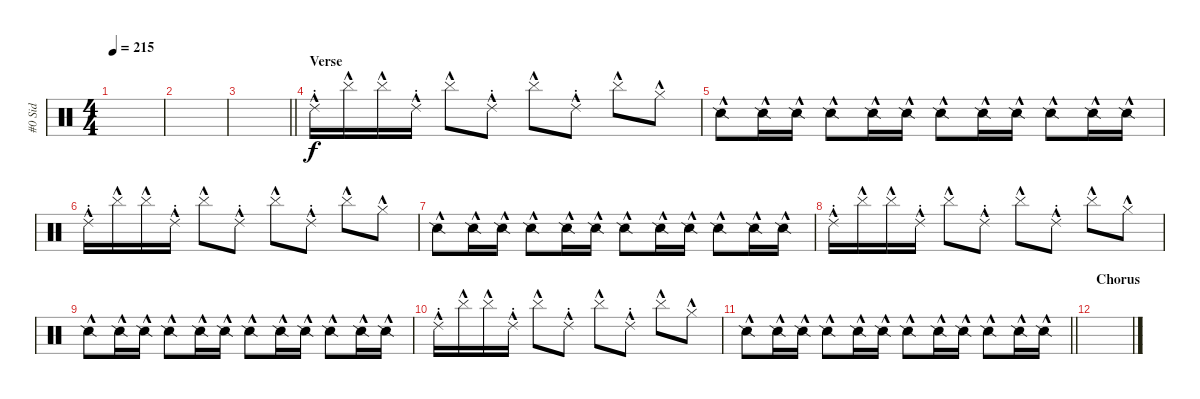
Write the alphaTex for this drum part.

\track ("#0 Sid" "#0 Sid") {instrument percussion}
\staff {score}
\articulation defaults
\ts (4 4)
\tempo 215
\clef neutral
\ks c
|
|
\barLineRight lightlight
|
\section ("" "Verse")
"Ride (choke) 2"{hac}.16 "Cymbal (hit)"{hac}.16 "Cymbal (hit)"{hac}.16 "Ride (choke) 2"{hac}.16 "Cymbal (hit)"{hac}.8 "Ride (choke) 2"{hac}.8 "Cymbal (hit)"{hac}.8 "Ride (choke) 2"{hac}.8 "Cymbal (hit)"{hac}.8 "Hi-Hat (closed)"{hac}.8 |
"Snare (side stick) 2"{hac}.8 "Snare (side stick) 2"{hac}.16 "Snare (side stick) 2"{hac}.16 "Snare (side stick) 2"{hac}.8 "Snare (side stick) 2"{hac}.16 "Snare (side stick) 2"{hac}.16 "Snare (side stick) 2"{hac}.8 "Snare (side stick) 2"{hac}.16 "Snare (side stick) 2"{hac}.16 "Snare (side stick) 2"{hac}.8 "Snare (side stick) 2"{hac}.16 "Snare (side stick) 2"{hac}.16 |
"Ride (choke) 2"{hac}.16 "Cymbal (hit)"{hac}.16 "Cymbal (hit)"{hac}.16 "Ride (choke) 2"{hac}.16 "Cymbal (hit)"{hac}.8 "Ride (choke) 2"{hac}.8 "Cymbal (hit)"{hac}.8 "Ride (choke) 2"{hac}.8 "Cymbal (hit)"{hac}.8 "Hi-Hat (closed)"{hac}.8 |
"Snare (side stick) 2"{hac}.8 "Snare (side stick) 2"{hac}.16 "Snare (side stick) 2"{hac}.16 "Snare (side stick) 2"{hac}.8 "Snare (side stick) 2"{hac}.16 "Snare (side stick) 2"{hac}.16 "Snare (side stick) 2"{hac}.8 "Snare (side stick) 2"{hac}.16 "Snare (side stick) 2"{hac}.16 "Snare (side stick) 2"{hac}.8 "Snare (side stick) 2"{hac}.16 "Snare (side stick) 2"{hac}.16 |
"Ride (choke) 2"{hac}.16 "Cymbal (hit)"{hac}.16 "Cymbal (hit)"{hac}.16 "Ride (choke) 2"{hac}.16 "Cymbal (hit)"{hac}.8 "Ride (choke) 2"{hac}.8 "Cymbal (hit)"{hac}.8 "Ride (choke) 2"{hac}.8 "Cymbal (hit)"{hac}.8 "Hi-Hat (closed)"{hac}.8 |
"Snare (side stick) 2"{hac}.8 "Snare (side stick) 2"{hac}.16 "Snare (side stick) 2"{hac}.16 "Snare (side stick) 2"{hac}.8 "Snare (side stick) 2"{hac}.16 "Snare (side stick) 2"{hac}.16 "Snare (side stick) 2"{hac}.8 "Snare (side stick) 2"{hac}.16 "Snare (side stick) 2"{hac}.16 "Snare (side stick) 2"{hac}.8 "Snare (side stick) 2"{hac}.16 "Snare (side stick) 2"{hac}.16 |
"Ride (choke) 2"{hac}.16 "Cymbal (hit)"{hac}.16 "Cymbal (hit)"{hac}.16 "Ride (choke) 2"{hac}.16 "Cymbal (hit)"{hac}.8 "Ride (choke) 2"{hac}.8 "Cymbal (hit)"{hac}.8 "Ride (choke) 2"{hac}.8 "Cymbal (hit)"{hac}.8 "Hi-Hat (closed)"{hac}.8 |
\barLineRight lightlight "Snare (side stick) 2"{hac}.8 "Snare (side stick) 2"{hac}.16 "Snare (side stick) 2"{hac}.16 "Snare (side stick) 2"{hac}.8 "Snare (side stick) 2"{hac}.16 "Snare (side stick) 2"{hac}.16 "Snare (side stick) 2"{hac}.8 "Snare (side stick) 2"{hac}.16 "Snare (side stick) 2"{hac}.16 "Snare (side stick) 2"{hac}.8 "Snare (side stick) 2"{hac}.16 "Snare (side stick) 2"{hac}.16
|
\section ("" "Chorus")
